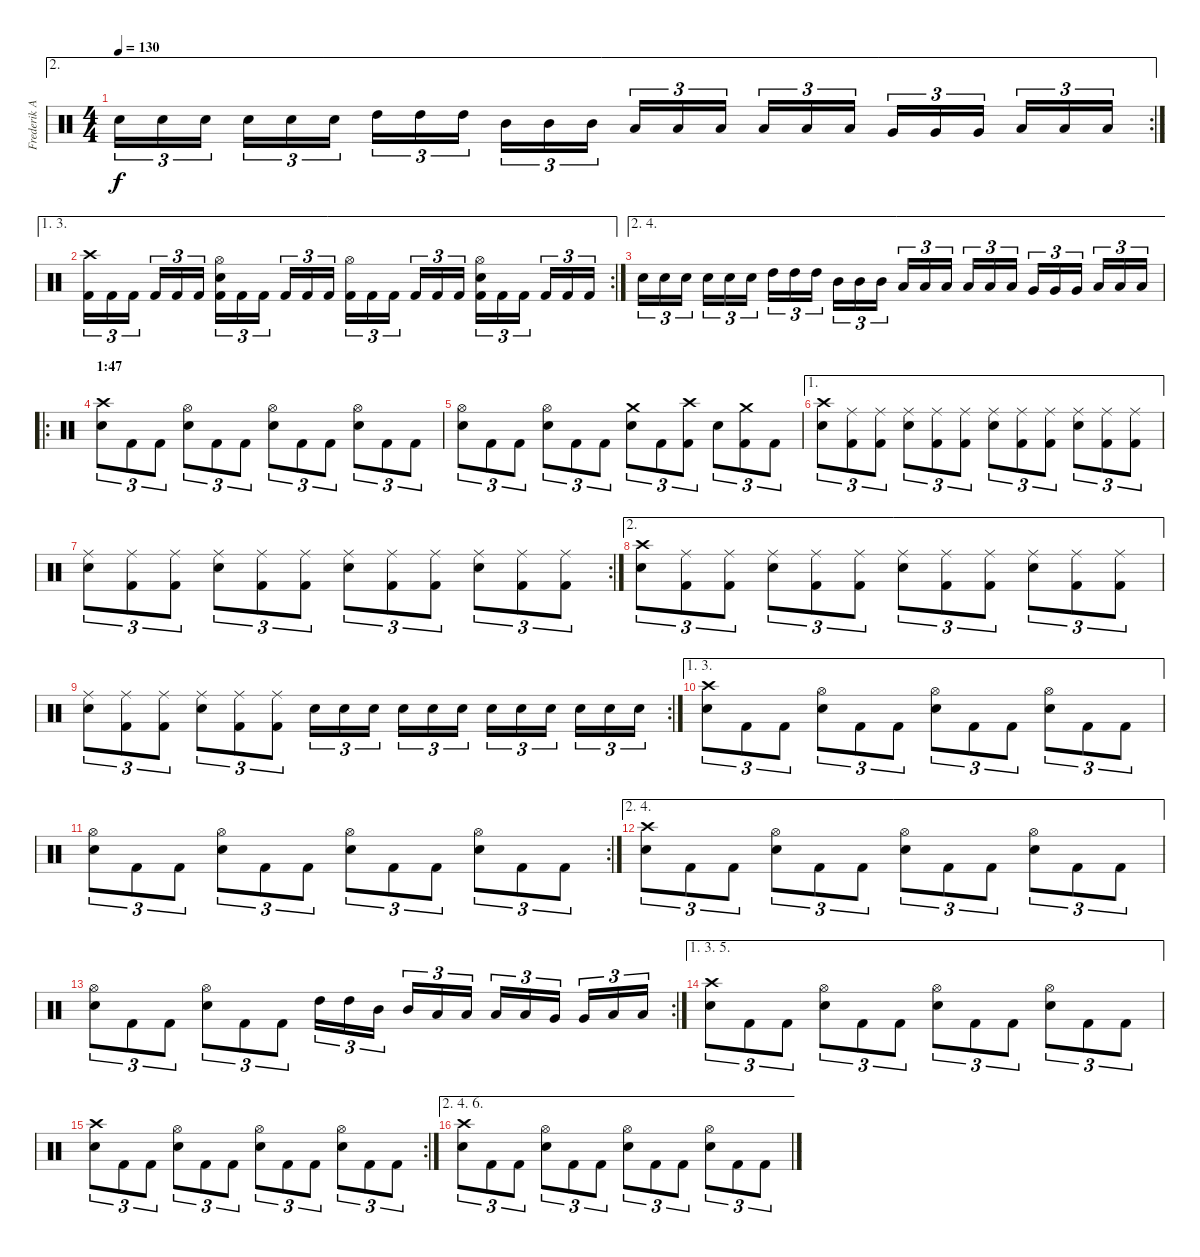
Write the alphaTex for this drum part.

\track ("Frederik Anderson" "Frederik A") {instrument percussion}
\staff {score}
\articulation defaults
\ae 2
\rc 2
\ts (4 4)
\tempo 130
\clef neutral
\ks c "Electric Snare (hit)".16{tu (3 2) dy f} "Electric Snare (hit)".16{tu (3 2)} "Electric Snare (hit)".16{tu (3 2)} "Electric Snare (hit)".16{tu (3 2)} "Electric Snare (hit)".16{tu (3 2)} "Electric Snare (hit)".16{tu (3 2)} "High Tom (hit)".16{tu (3 2)} "High Tom (hit)".16{tu (3 2)} "High Tom (hit)".16{tu (3 2)} "Mid Tom (hit)".16{tu (3 2)} "Mid Tom (hit)".16{tu (3 2)} "Mid Tom (hit)".16{tu (3 2)} "Low Tom (hit)".16{tu (3 2)} "Low Tom (hit)".16{tu (3 2)} "Low Tom (hit)".16{tu (3 2)} "Low Tom (hit)".16{tu (3 2)} "Low Tom (hit)".16{tu (3 2)} "Low Tom (hit)".16{tu (3 2)} "Very Low Tom (hit)".16{tu (3 2)} "Very Low Tom (hit)".16{tu (3 2)} "Very Low Tom (hit)".16{tu (3 2)} "Low Floor Tom (hit)".16{tu (3 2)} "Low Floor Tom (hit)".16{tu (3 2)} "Low Floor Tom (hit)".16{tu (3 2)}
|
\ae (1 3)
\rc 2
("Crash high (hit)" "Kick (hit) 2").16{tu (3 2)} "Kick (hit) 2".16{tu (3 2)} "Kick (hit) 2".16{tu (3 2)} "Kick (hit) 2".16{tu (3 2)} "Kick (hit) 2".16{tu (3 2)} "Kick (hit) 2".16{tu (3 2)} ("Hi-Hat (open)" "Electric Snare (hit)" "Kick (hit) 2").16{tu (3 2)} "Kick (hit) 2".16{tu (3 2)} "Kick (hit) 2".16{tu (3 2)} "Kick (hit) 2".16{tu (3 2)} "Kick (hit) 2".16{tu (3 2)} "Kick (hit) 2".16{tu (3 2)} ("Hi-Hat (open)" "Kick (hit) 2").16{tu (3 2)} "Kick (hit) 2".16{tu (3 2)} "Kick (hit) 2".16{tu (3 2)} "Kick (hit) 2".16{tu (3 2)} "Kick (hit) 2".16{tu (3 2)} "Kick (hit) 2".16{tu (3 2)} ("Hi-Hat (open)" "Electric Snare (hit)" "Kick (hit) 2").16{tu (3 2)} "Kick (hit) 2".16{tu (3 2)} "Kick (hit) 2".16{tu (3 2)} "Kick (hit) 2".16{tu (3 2)} "Kick (hit) 2".16{tu (3 2)} "Kick (hit) 2".16{tu (3 2)} |
\ae (2 4)
"Electric Snare (hit)".16{tu (3 2)} "Electric Snare (hit)".16{tu (3 2)} "Electric Snare (hit)".16{tu (3 2)} "Electric Snare (hit)".16{tu (3 2)} "Electric Snare (hit)".16{tu (3 2)} "Electric Snare (hit)".16{tu (3 2)} "High Tom (hit)".16{tu (3 2)} "High Tom (hit)".16{tu (3 2)} "High Tom (hit)".16{tu (3 2)} "Mid Tom (hit)".16{tu (3 2)} "Mid Tom (hit)".16{tu (3 2)} "Mid Tom (hit)".16{tu (3 2)} "Low Tom (hit)".16{tu (3 2)} "Low Tom (hit)".16{tu (3 2)} "Low Tom (hit)".16{tu (3 2)} "Low Tom (hit)".16{tu (3 2)} "Low Tom (hit)".16{tu (3 2)} "Low Tom (hit)".16{tu (3 2)} "Very Low Tom (hit)".16{tu (3 2)} "Very Low Tom (hit)".16{tu (3 2)} "Very Low Tom (hit)".16{tu (3 2)} "Low Floor Tom (hit)".16{tu (3 2)} "Low Floor Tom (hit)".16{tu (3 2)} "Low Floor Tom (hit)".16{tu (3 2)} |
\ro
\section ("" "1:47")
("Crash high (hit)" "Electric Snare (hit)").8{tu (3 2)} "Kick (hit) 2".8{tu (3 2)} "Kick (hit) 2".8{tu (3 2)} ("Hi-Hat (open)" "Electric Snare (hit)").8{tu (3 2)} "Kick (hit) 2".8{tu (3 2)} "Kick (hit) 2".8{tu (3 2)} ("Hi-Hat (open)" "Electric Snare (hit)").8{tu (3 2)} "Kick (hit) 2".8{tu (3 2)} "Kick (hit) 2".8{tu (3 2)} ("Hi-Hat (open)" "Electric Snare (hit)").8{tu (3 2)} "Kick (hit) 2".8{tu (3 2)} "Kick (hit) 2".8{tu (3 2)} |
("Hi-Hat (open)" "Electric Snare (hit)").8{tu (3 2)} "Kick (hit) 2".8{tu (3 2)} "Kick (hit) 2".8{tu (3 2)} ("Hi-Hat (open)" "Electric Snare (hit)").8{tu (3 2)} "Kick (hit) 2".8{tu (3 2)} "Kick (hit) 2".8{tu (3 2)} ("Crash medium (hit)" "Electric Snare (hit)").8{tu (3 2)} "Kick (hit) 2".8{tu (3 2)} ("Crash high (hit)" "Kick (hit) 2").8{tu (3 2)} "Electric Snare (hit)".8{tu (3 2)} ("Crash medium (hit)" "Kick (hit) 2").8{tu (3 2)} "Kick (hit) 2".8{tu (3 2)} |
\ae 1
("Crash high (hit)" "Electric Snare (hit)").8{tu (3 2)} ("Ride (middle)" "Kick (hit) 2").8{tu (3 2)} ("Ride (middle)" "Kick (hit) 2").8{tu (3 2)} ("Ride (middle)" "Electric Snare (hit)").8{tu (3 2)} ("Ride (middle)" "Kick (hit) 2").8{tu (3 2)} ("Ride (middle)" "Kick (hit) 2").8{tu (3 2)} ("Ride (middle)" "Electric Snare (hit)").8{tu (3 2)} ("Ride (middle)" "Kick (hit) 2").8{tu (3 2)} ("Ride (middle)" "Kick (hit) 2").8{tu (3 2)} ("Ride (middle)" "Electric Snare (hit)").8{tu (3 2)} ("Ride (middle)" "Kick (hit) 2").8{tu (3 2)} ("Ride (middle)" "Kick (hit) 2").8{tu (3 2)} |
\rc 2
("Ride (middle)" "Electric Snare (hit)").8{tu (3 2)} ("Ride (middle)" "Kick (hit) 2").8{tu (3 2)} ("Ride (middle)" "Kick (hit) 2").8{tu (3 2)} ("Ride (middle)" "Electric Snare (hit)").8{tu (3 2)} ("Ride (middle)" "Kick (hit) 2").8{tu (3 2)} ("Ride (middle)" "Kick (hit) 2").8{tu (3 2)} ("Ride (middle)" "Electric Snare (hit)").8{tu (3 2)} ("Ride (middle)" "Kick (hit) 2").8{tu (3 2)} ("Ride (middle)" "Kick (hit) 2").8{tu (3 2)} ("Ride (middle)" "Electric Snare (hit)").8{tu (3 2)} ("Ride (middle)" "Kick (hit) 2").8{tu (3 2)} ("Ride (middle)" "Kick (hit) 2").8{tu (3 2)} |
\ae 2
("Crash high (hit)" "Electric Snare (hit)").8{tu (3 2)} ("Ride (middle)" "Kick (hit) 2").8{tu (3 2)} ("Ride (middle)" "Kick (hit) 2").8{tu (3 2)} ("Ride (middle)" "Electric Snare (hit)").8{tu (3 2)} ("Ride (middle)" "Kick (hit) 2").8{tu (3 2)} ("Ride (middle)" "Kick (hit) 2").8{tu (3 2)} ("Ride (middle)" "Electric Snare (hit)").8{tu (3 2)} ("Ride (middle)" "Kick (hit) 2").8{tu (3 2)} ("Ride (middle)" "Kick (hit) 2").8{tu (3 2)} ("Ride (middle)" "Electric Snare (hit)").8{tu (3 2)} ("Ride (middle)" "Kick (hit) 2").8{tu (3 2)} ("Ride (middle)" "Kick (hit) 2").8{tu (3 2)} |
\rc 2
("Ride (middle)" "Electric Snare (hit)").8{tu (3 2)} ("Ride (middle)" "Kick (hit) 2").8{tu (3 2)} ("Ride (middle)" "Kick (hit) 2").8{tu (3 2)} ("Ride (middle)" "Electric Snare (hit)").8{tu (3 2)} ("Ride (middle)" "Kick (hit) 2").8{tu (3 2)} ("Ride (middle)" "Kick (hit) 2").8{tu (3 2)} "Electric Snare (hit)".16{tu (3 2)} "Electric Snare (hit)".16{tu (3 2)} "Electric Snare (hit)".16{tu (3 2)} "Electric Snare (hit)".16{tu (3 2)} "Electric Snare (hit)".16{tu (3 2)} "Electric Snare (hit)".16{tu (3 2)} "Electric Snare (hit)".16{tu (3 2)} "Electric Snare (hit)".16{tu (3 2)} "Electric Snare (hit)".16{tu (3 2)} "Electric Snare (hit)".16{tu (3 2)} "Electric Snare (hit)".16{tu (3 2)} "Electric Snare (hit)".16{tu (3 2)} |
\ae (1 3)
("Crash high (hit)" "Electric Snare (hit)").8{tu (3 2)} "Kick (hit) 2".8{tu (3 2)} "Kick (hit) 2".8{tu (3 2)} ("Hi-Hat (open)" "Electric Snare (hit)").8{tu (3 2)} "Kick (hit) 2".8{tu (3 2)} "Kick (hit) 2".8{tu (3 2)} ("Hi-Hat (open)" "Electric Snare (hit)").8{tu (3 2)} "Kick (hit) 2".8{tu (3 2)} "Kick (hit) 2".8{tu (3 2)} ("Hi-Hat (open)" "Electric Snare (hit)").8{tu (3 2)} "Kick (hit) 2".8{tu (3 2)} "Kick (hit) 2".8{tu (3 2)} |
\rc 2
("Hi-Hat (open)" "Electric Snare (hit)").8{tu (3 2)} "Kick (hit) 2".8{tu (3 2)} "Kick (hit) 2".8{tu (3 2)} ("Hi-Hat (open)" "Electric Snare (hit)").8{tu (3 2)} "Kick (hit) 2".8{tu (3 2)} "Kick (hit) 2".8{tu (3 2)} ("Hi-Hat (open)" "Electric Snare (hit)").8{tu (3 2)} "Kick (hit) 2".8{tu (3 2)} "Kick (hit) 2".8{tu (3 2)} ("Hi-Hat (open)" "Electric Snare (hit)").8{tu (3 2)} "Kick (hit) 2".8{tu (3 2)} "Kick (hit) 2".8{tu (3 2)} |
\ae (2 4)
("Crash high (hit)" "Electric Snare (hit)").8{tu (3 2)} "Kick (hit) 2".8{tu (3 2)} "Kick (hit) 2".8{tu (3 2)} ("Hi-Hat (open)" "Electric Snare (hit)").8{tu (3 2)} "Kick (hit) 2".8{tu (3 2)} "Kick (hit) 2".8{tu (3 2)} ("Hi-Hat (open)" "Electric Snare (hit)").8{tu (3 2)} "Kick (hit) 2".8{tu (3 2)} "Kick (hit) 2".8{tu (3 2)} ("Hi-Hat (open)" "Electric Snare (hit)").8{tu (3 2)} "Kick (hit) 2".8{tu (3 2)} "Kick (hit) 2".8{tu (3 2)} |
\rc 2
("Hi-Hat (open)" "Electric Snare (hit)").8{tu (3 2)} "Kick (hit) 2".8{tu (3 2)} "Kick (hit) 2".8{tu (3 2)} ("Hi-Hat (open)" "Electric Snare (hit)").8{tu (3 2)} "Kick (hit) 2".8{tu (3 2)} "Kick (hit) 2".8{tu (3 2)} "High Tom (hit)".16{tu (3 2)} "High Tom (hit)".16{tu (3 2)} "Mid Tom (hit)".16{tu (3 2)} "Mid Tom (hit)".16{tu (3 2)} "Low Tom (hit)".16{tu (3 2)} "Low Tom (hit)".16{tu (3 2)} "Low Tom (hit)".16{tu (3 2)} "Low Tom (hit)".16{tu (3 2)} "Very Low Tom (hit)".16{tu (3 2)} "Very Low Tom (hit)".16{tu (3 2)} "Low Floor Tom (hit)".16{tu (3 2)} "Low Floor Tom (hit)".16{tu (3 2)} |
\ae (1 3 5)
("Crash high (hit)" "Electric Snare (hit)").8{tu (3 2)} "Kick (hit) 2".8{tu (3 2)} "Kick (hit) 2".8{tu (3 2)} ("Hi-Hat (open)" "Electric Snare (hit)").8{tu (3 2)} "Kick (hit) 2".8{tu (3 2)} "Kick (hit) 2".8{tu (3 2)} ("Hi-Hat (open)" "Electric Snare (hit)").8{tu (3 2)} "Kick (hit) 2".8{tu (3 2)} "Kick (hit) 2".8{tu (3 2)} ("Hi-Hat (open)" "Electric Snare (hit)").8{tu (3 2)} "Kick (hit) 2".8{tu (3 2)} "Kick (hit) 2".8{tu (3 2)} |
\rc 2
("Crash high (hit)" "Electric Snare (hit)").8{tu (3 2)} "Kick (hit) 2".8{tu (3 2)} "Kick (hit) 2".8{tu (3 2)} ("Hi-Hat (open)" "Electric Snare (hit)").8{tu (3 2)} "Kick (hit) 2".8{tu (3 2)} "Kick (hit) 2".8{tu (3 2)} ("Hi-Hat (open)" "Electric Snare (hit)").8{tu (3 2)} "Kick (hit) 2".8{tu (3 2)} "Kick (hit) 2".8{tu (3 2)} ("Hi-Hat (open)" "Electric Snare (hit)").8{tu (3 2)} "Kick (hit) 2".8{tu (3 2)} "Kick (hit) 2".8{tu (3 2)} |
\ae (2 4 6)
("Crash high (hit)" "Electric Snare (hit)").8{tu (3 2)} "Kick (hit) 2".8{tu (3 2)} "Kick (hit) 2".8{tu (3 2)} ("Hi-Hat (open)" "Electric Snare (hit)").8{tu (3 2)} "Kick (hit) 2".8{tu (3 2)} "Kick (hit) 2".8{tu (3 2)} ("Hi-Hat (open)" "Electric Snare (hit)").8{tu (3 2)} "Kick (hit) 2".8{tu (3 2)} "Kick (hit) 2".8{tu (3 2)} ("Hi-Hat (open)" "Electric Snare (hit)").8{tu (3 2)} "Kick (hit) 2".8{tu (3 2)} "Kick (hit) 2".8{tu (3 2)}
